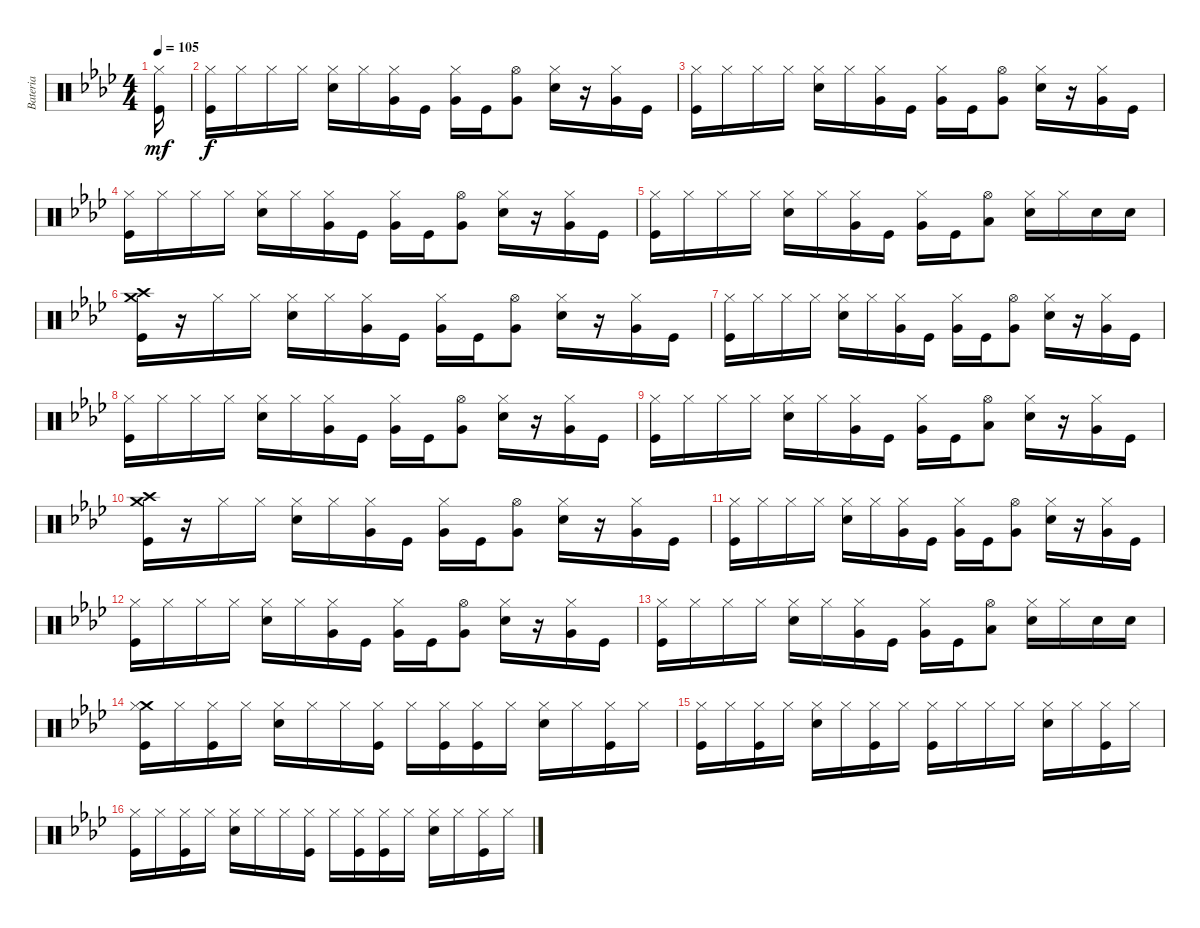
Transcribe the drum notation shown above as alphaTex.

\track ("Bateria" "Bateria") {instrument percussion}
\staff {score}
\articulation defaults
\ts (4 4)
\tempo 105
\clef neutral
\ks fminor
("Kick (hit)" "Hi-Hat (closed)").16{dy mf} |
("Kick (hit)" "Hi-Hat (closed)").16{dy f} "Hi-Hat (closed)".16 "Hi-Hat (closed)".16 "Hi-Hat (closed)".16 ("Snare (hit) 2" "Hi-Hat (closed)").16 "Hi-Hat (closed)".16 ("Very Low Tom (hit)" "Hi-Hat (closed)").16 "Kick (hit)".16 ("Very Low Tom (hit)" "Hi-Hat (closed)").16 "Kick (hit)".16 ("Very Low Tom (hit)" "Hi-Hat (open)").8 ("Snare (hit) 2" "Hi-Hat (closed)").16 r.16 ("Hi-Hat (closed)" "Very Low Tom (hit)").16 "Kick (hit)".16 |
("Kick (hit)" "Hi-Hat (closed)").16 "Hi-Hat (closed)".16 "Hi-Hat (closed)".16 "Hi-Hat (closed)".16 ("Snare (hit) 2" "Hi-Hat (closed)").16 "Hi-Hat (closed)".16 ("Very Low Tom (hit)" "Hi-Hat (closed)").16 "Kick (hit)".16 ("Very Low Tom (hit)" "Hi-Hat (closed)").16 "Kick (hit)".16 ("Very Low Tom (hit)" "Hi-Hat (open)").8 ("Snare (hit) 2" "Hi-Hat (closed)").16 r.16 ("Hi-Hat (closed)" "Very Low Tom (hit)").16 "Kick (hit)".16 |
("Kick (hit)" "Hi-Hat (closed)").16 "Hi-Hat (closed)".16 "Hi-Hat (closed)".16 "Hi-Hat (closed)".16 ("Snare (hit) 2" "Hi-Hat (closed)").16 "Hi-Hat (closed)".16 ("Very Low Tom (hit)" "Hi-Hat (closed)").16 "Kick (hit)".16 ("Very Low Tom (hit)" "Hi-Hat (closed)").16 "Kick (hit)".16 ("Very Low Tom (hit)" "Hi-Hat (open)").8 ("Snare (hit) 2" "Hi-Hat (closed)").16 r.16 ("Hi-Hat (closed)" "Very Low Tom (hit)").16 "Kick (hit)".16 |
("Kick (hit)" "Hi-Hat (closed)").16 "Hi-Hat (closed)".16 "Hi-Hat (closed)".16 "Hi-Hat (closed)".16 ("Snare (hit) 2" "Hi-Hat (closed)").16 "Hi-Hat (closed)".16 ("Very Low Tom (hit)" "Hi-Hat (closed)").16 "Kick (hit)".16 ("Very Low Tom (hit)" "Hi-Hat (closed)").16 "Kick (hit)".16 ("Hi-Hat (open)" "Low Floor Tom (hit)").8 ("Snare (hit) 2" "Hi-Hat (closed)").16 "Hi-Hat (closed)".16 "Snare (hit) 2".16 "Snare (hit) 2".16 |
("Kick (hit)" "Crash medium (hit)" "Crash high (hit)").16 r.16 "Hi-Hat (closed)".16 "Hi-Hat (closed)".16 ("Snare (hit) 2" "Hi-Hat (closed)").16 "Hi-Hat (closed)".16 ("Very Low Tom (hit)" "Hi-Hat (closed)").16 "Kick (hit)".16 ("Very Low Tom (hit)" "Hi-Hat (closed)").16 "Kick (hit)".16 ("Very Low Tom (hit)" "Hi-Hat (open)").8 ("Snare (hit) 2" "Hi-Hat (closed)").16 r.16 ("Hi-Hat (closed)" "Very Low Tom (hit)").16 "Kick (hit)".16 |
("Kick (hit)" "Hi-Hat (closed)").16 "Hi-Hat (closed)".16 "Hi-Hat (closed)".16 "Hi-Hat (closed)".16 ("Snare (hit) 2" "Hi-Hat (closed)").16 "Hi-Hat (closed)".16 ("Very Low Tom (hit)" "Hi-Hat (closed)").16 "Kick (hit)".16 ("Very Low Tom (hit)" "Hi-Hat (closed)").16 "Kick (hit)".16 ("Very Low Tom (hit)" "Hi-Hat (open)").8 ("Snare (hit) 2" "Hi-Hat (closed)").16 r.16 ("Hi-Hat (closed)" "Very Low Tom (hit)").16 "Kick (hit)".16 |
("Kick (hit)" "Hi-Hat (closed)").16 "Hi-Hat (closed)".16 "Hi-Hat (closed)".16 "Hi-Hat (closed)".16 ("Snare (hit) 2" "Hi-Hat (closed)").16 "Hi-Hat (closed)".16 ("Very Low Tom (hit)" "Hi-Hat (closed)").16 "Kick (hit)".16 ("Very Low Tom (hit)" "Hi-Hat (closed)").16 "Kick (hit)".16 ("Very Low Tom (hit)" "Hi-Hat (open)").8 ("Snare (hit) 2" "Hi-Hat (closed)").16 r.16 ("Hi-Hat (closed)" "Very Low Tom (hit)").16 "Kick (hit)".16 |
("Kick (hit)" "Hi-Hat (closed)").16 "Hi-Hat (closed)".16 "Hi-Hat (closed)".16 "Hi-Hat (closed)".16 ("Snare (hit) 2" "Hi-Hat (closed)").16 "Hi-Hat (closed)".16 ("Very Low Tom (hit)" "Hi-Hat (closed)").16 "Kick (hit)".16 ("Very Low Tom (hit)" "Hi-Hat (closed)").16 "Kick (hit)".16 ("Hi-Hat (open)" "Low Floor Tom (hit)").8 ("Snare (hit) 2" "Hi-Hat (closed)").16 r.16 ("Hi-Hat (closed)" "Very Low Tom (hit)").16 "Kick (hit)".16 |
("Kick (hit)" "Crash medium (hit)" "Crash high (hit)").16 r.16 "Hi-Hat (closed)".16 "Hi-Hat (closed)".16 ("Snare (hit) 2" "Hi-Hat (closed)").16 "Hi-Hat (closed)".16 ("Very Low Tom (hit)" "Hi-Hat (closed)").16 "Kick (hit)".16 ("Very Low Tom (hit)" "Hi-Hat (closed)").16 "Kick (hit)".16 ("Very Low Tom (hit)" "Hi-Hat (open)").8 ("Snare (hit) 2" "Hi-Hat (closed)").16 r.16 ("Hi-Hat (closed)" "Very Low Tom (hit)").16 "Kick (hit)".16 |
("Kick (hit)" "Hi-Hat (closed)").16 "Hi-Hat (closed)".16 "Hi-Hat (closed)".16 "Hi-Hat (closed)".16 ("Snare (hit) 2" "Hi-Hat (closed)").16 "Hi-Hat (closed)".16 ("Very Low Tom (hit)" "Hi-Hat (closed)").16 "Kick (hit)".16 ("Very Low Tom (hit)" "Hi-Hat (closed)").16 "Kick (hit)".16 ("Very Low Tom (hit)" "Hi-Hat (open)").8 ("Snare (hit) 2" "Hi-Hat (closed)").16 r.16 ("Hi-Hat (closed)" "Very Low Tom (hit)").16 "Kick (hit)".16 |
("Kick (hit)" "Hi-Hat (closed)").16 "Hi-Hat (closed)".16 "Hi-Hat (closed)".16 "Hi-Hat (closed)".16 ("Snare (hit) 2" "Hi-Hat (closed)").16 "Hi-Hat (closed)".16 ("Very Low Tom (hit)" "Hi-Hat (closed)").16 "Kick (hit)".16 ("Very Low Tom (hit)" "Hi-Hat (closed)").16 "Kick (hit)".16 ("Very Low Tom (hit)" "Hi-Hat (open)").8 ("Snare (hit) 2" "Hi-Hat (closed)").16 r.16 ("Hi-Hat (closed)" "Very Low Tom (hit)").16 "Kick (hit)".16 |
("Kick (hit)" "Hi-Hat (closed)").16 "Hi-Hat (closed)".16 "Hi-Hat (closed)".16 "Hi-Hat (closed)".16 ("Snare (hit) 2" "Hi-Hat (closed)").16 "Hi-Hat (closed)".16 ("Very Low Tom (hit)" "Hi-Hat (closed)").16 "Kick (hit)".16 ("Very Low Tom (hit)" "Hi-Hat (closed)").16 "Kick (hit)".16 ("Hi-Hat (open)" "Low Floor Tom (hit)").8 ("Snare (hit) 2" "Hi-Hat (closed)").16 "Hi-Hat (closed)".16 "Snare (hit) 2".16 "Snare (hit) 2".16 |
("Crash medium (hit)" "Kick (hit)" "Hi-Hat (closed)").16 "Hi-Hat (closed)".16 ("Kick (hit)" "Hi-Hat (closed)").16 "Hi-Hat (closed)".16 ("Snare (hit) 2" "Hi-Hat (closed)").16 "Hi-Hat (closed)".16 "Hi-Hat (closed)".16 ("Hi-Hat (closed)" "Kick (hit)").16 "Hi-Hat (closed)".16 ("Kick (hit)" "Hi-Hat (closed)").16 ("Hi-Hat (closed)" "Kick (hit)").16 "Hi-Hat (closed)".16 ("Hi-Hat (closed)" "Snare (hit) 2").16 "Hi-Hat (closed)".16 ("Hi-Hat (closed)" "Kick (hit)").16 "Hi-Hat (closed)".16 |
("Kick (hit)" "Hi-Hat (closed)").16 "Hi-Hat (closed)".16 ("Kick (hit)" "Hi-Hat (closed)").16 "Hi-Hat (closed)".16 ("Snare (hit) 2" "Hi-Hat (closed)").16 "Hi-Hat (closed)".16 ("Hi-Hat (closed)" "Kick (hit)").16 "Hi-Hat (closed)".16 ("Hi-Hat (closed)" "Kick (hit)").16 "Hi-Hat (closed)".16 "Hi-Hat (closed)".16 "Hi-Hat (closed)".16 ("Hi-Hat (closed)" "Snare (hit) 2").16 "Hi-Hat (closed)".16 ("Hi-Hat (closed)" "Kick (hit)").16 "Hi-Hat (closed)".16 |
("Kick (hit)" "Hi-Hat (closed)").16 "Hi-Hat (closed)".16 ("Kick (hit)" "Hi-Hat (closed)").16 "Hi-Hat (closed)".16 ("Snare (hit) 2" "Hi-Hat (closed)").16 "Hi-Hat (closed)".16 "Hi-Hat (closed)".16 ("Hi-Hat (closed)" "Kick (hit)").16 "Hi-Hat (closed)".16 ("Kick (hit)" "Hi-Hat (closed)").16 ("Hi-Hat (closed)" "Kick (hit)").16 "Hi-Hat (closed)".16 ("Hi-Hat (closed)" "Snare (hit) 2").16 "Hi-Hat (closed)".16 ("Hi-Hat (closed)" "Kick (hit)").16 "Hi-Hat (closed)".16
